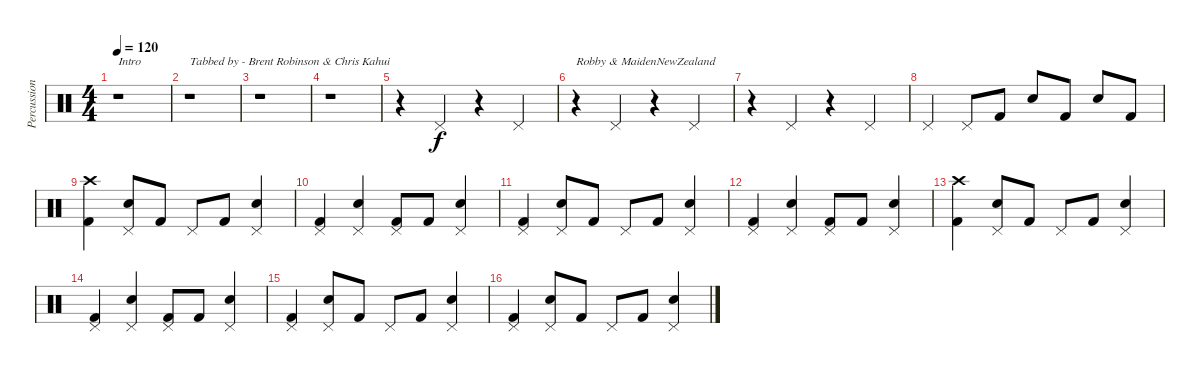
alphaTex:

\track ("Percussion" "Percussion") {instrument percussion}
\staff {score}
\articulation defaults
\ts (4 4)
\tempo 120
\clef neutral
\ks c
r.1{txt "Intro" dy f} |
r.1{txt "Tabbed by - Brent Robinson & Chris Kahui"} |
r.1 |
r.1 |
r.4 "Pedal Hi-Hat (hit)".4 r.4 "Pedal Hi-Hat (hit)".4 |
r.4{txt "Robby & MaidenNewZealand"} "Pedal Hi-Hat (hit)".4 r.4 "Pedal Hi-Hat (hit)".4 |
r.4 "Pedal Hi-Hat (hit)".4 r.4 "Pedal Hi-Hat (hit)".4 |
"Pedal Hi-Hat (hit)".4 "Pedal Hi-Hat (hit)".8 "Kick (hit) 2".8 "Snare (hit) 2".8 "Kick (hit) 2".8 "Snare (hit) 2".8 "Kick (hit) 2".8 |
("Crash high (hit)" "Kick (hit) 2").4 ("Pedal Hi-Hat (hit)" "Snare (hit) 2").8 "Kick (hit) 2".8 "Pedal Hi-Hat (hit)".8 "Kick (hit) 2".8 ("Pedal Hi-Hat (hit)" "Snare (hit) 2").4 |
("Pedal Hi-Hat (hit)" "Kick (hit) 2").4 ("Pedal Hi-Hat (hit)" "Snare (hit) 2").4 ("Pedal Hi-Hat (hit)" "Kick (hit) 2").8 "Kick (hit) 2".8 ("Pedal Hi-Hat (hit)" "Snare (hit) 2").4 |
("Pedal Hi-Hat (hit)" "Kick (hit) 2").4 ("Pedal Hi-Hat (hit)" "Snare (hit) 2").8 "Kick (hit) 2".8 "Pedal Hi-Hat (hit)".8 "Kick (hit) 2".8 ("Pedal Hi-Hat (hit)" "Snare (hit) 2").4 |
("Pedal Hi-Hat (hit)" "Kick (hit) 2").4 ("Pedal Hi-Hat (hit)" "Snare (hit) 2").4 ("Pedal Hi-Hat (hit)" "Kick (hit) 2").8 "Kick (hit) 2".8 ("Pedal Hi-Hat (hit)" "Snare (hit) 2").4 |
("Crash high (hit)" "Kick (hit) 2").4 ("Pedal Hi-Hat (hit)" "Snare (hit) 2").8 "Kick (hit) 2".8 "Pedal Hi-Hat (hit)".8 "Kick (hit) 2".8 ("Pedal Hi-Hat (hit)" "Snare (hit) 2").4 |
("Pedal Hi-Hat (hit)" "Kick (hit) 2").4 ("Pedal Hi-Hat (hit)" "Snare (hit) 2").4 ("Pedal Hi-Hat (hit)" "Kick (hit) 2").8 "Kick (hit) 2".8 ("Pedal Hi-Hat (hit)" "Snare (hit) 2").4 |
("Pedal Hi-Hat (hit)" "Kick (hit) 2").4 ("Pedal Hi-Hat (hit)" "Snare (hit) 2").8 "Kick (hit) 2".8 "Pedal Hi-Hat (hit)".8 "Kick (hit) 2".8 ("Pedal Hi-Hat (hit)" "Snare (hit) 2").4 |
("Pedal Hi-Hat (hit)" "Kick (hit) 2").4 ("Pedal Hi-Hat (hit)" "Snare (hit) 2").8 "Kick (hit) 2".8 "Pedal Hi-Hat (hit)".8 "Kick (hit) 2".8 ("Pedal Hi-Hat (hit)" "Snare (hit) 2").4
